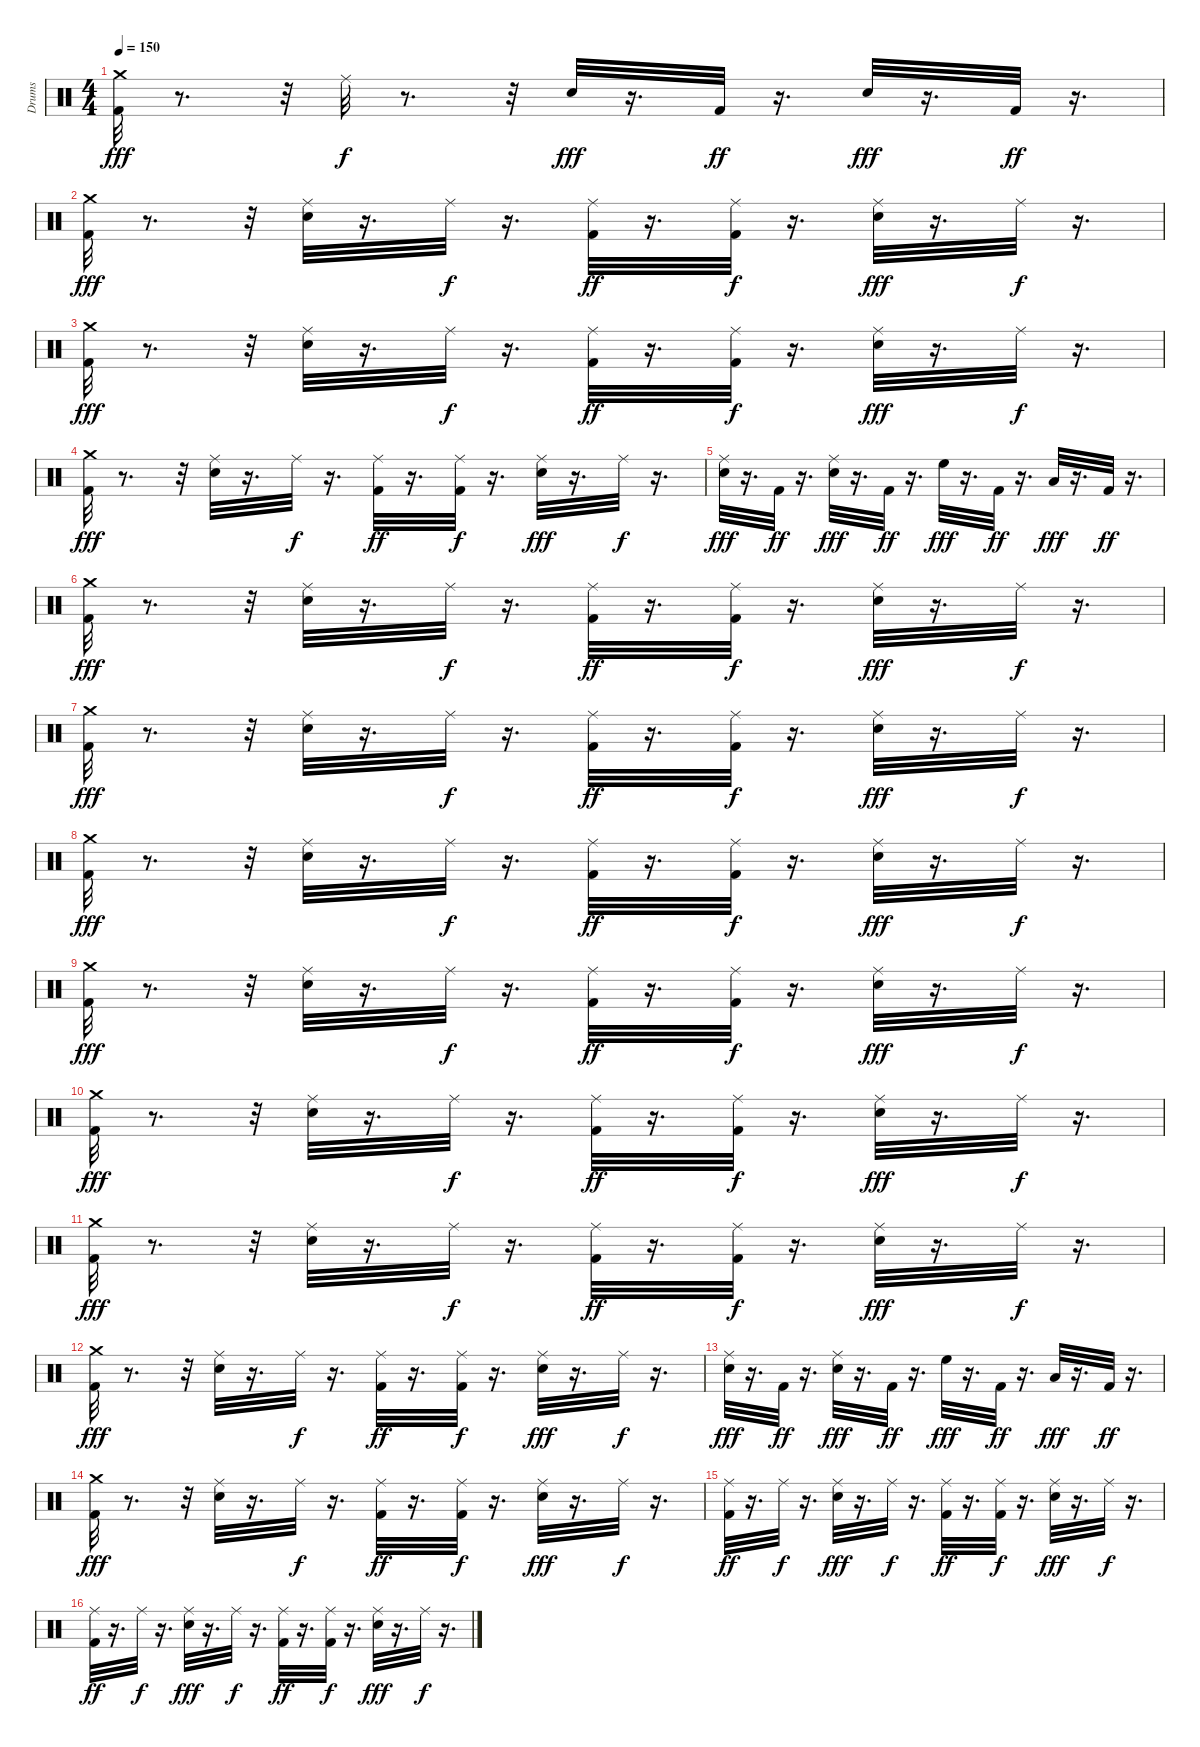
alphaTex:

\track ("Drums" "Drums") {instrument percussion}
\staff {score}
\articulation defaults
\ts (4 4)
\tempo 150
\clef neutral
\ks c
("Kick (hit) 2" "Crash medium (hit)").32{dy fff} r.8{d} r.32 "Ride (middle)".32{dy f} r.8{d} r.32 "Snare (hit) 2".32{dy fff} r.16{d} "Kick (hit) 2".32{dy ff} r.16{d} "Snare (hit) 2".32{dy fff} r.16{d} "Kick (hit) 2".32{dy ff} r.16{d} |
("Kick (hit) 2" "Crash medium (hit)").32{dy fff} r.8{d} r.32 ("Snare (hit) 2" "Ride (middle)").32 r.16{d} "Ride (middle)".32{dy f} r.16{d} ("Kick (hit) 2" "Ride (middle)").32{dy ff} r.16{d} ("Kick (hit) 2" "Ride (middle)").32{dy f} r.16{d} ("Snare (hit) 2" "Ride (middle)").32{dy fff} r.16{d} "Ride (middle)".32{dy f} r.16{d} |
("Kick (hit) 2" "Crash medium (hit)").32{dy fff} r.8{d} r.32 ("Snare (hit) 2" "Ride (middle)").32 r.16{d} "Ride (middle)".32{dy f} r.16{d} ("Kick (hit) 2" "Ride (middle)").32{dy ff} r.16{d} ("Kick (hit) 2" "Ride (middle)").32{dy f} r.16{d} ("Snare (hit) 2" "Ride (middle)").32{dy fff} r.16{d} "Ride (middle)".32{dy f} r.16{d} |
("Kick (hit) 2" "Crash medium (hit)").32{dy fff} r.8{d} r.32 ("Snare (hit) 2" "Ride (middle)").32 r.16{d} "Ride (middle)".32{dy f} r.16{d} ("Kick (hit) 2" "Ride (middle)").32{dy ff} r.16{d} ("Kick (hit) 2" "Ride (middle)").32{dy f} r.16{d} ("Snare (hit) 2" "Ride (middle)").32{dy fff} r.16{d} "Ride (middle)".32{dy f} r.16{d} |
("Snare (hit) 2" "Ride (middle)").32{dy fff} r.16{d} "Kick (hit) 2".32{dy ff} r.16{d} ("Snare (hit) 2" "Ride (middle)").32{dy fff} r.16{d} "Kick (hit) 2".32{dy ff} r.16{d} "High Floor Tom (hit)".32{dy fff} r.16{d} "Kick (hit) 2".32{dy ff} r.16{d} "Low Tom (hit)".32{dy fff} r.16{d} "Kick (hit) 2".32{dy ff} r.16{d} |
("Kick (hit) 2" "Crash medium (hit)").32{dy fff} r.8{d} r.32 ("Snare (hit) 2" "Ride (middle)").32 r.16{d} "Ride (middle)".32{dy f} r.16{d} ("Kick (hit) 2" "Ride (middle)").32{dy ff} r.16{d} ("Kick (hit) 2" "Ride (middle)").32{dy f} r.16{d} ("Snare (hit) 2" "Ride (middle)").32{dy fff} r.16{d} "Ride (middle)".32{dy f} r.16{d} |
("Kick (hit) 2" "Crash medium (hit)").32{dy fff} r.8{d} r.32 ("Snare (hit) 2" "Ride (middle)").32 r.16{d} "Ride (middle)".32{dy f} r.16{d} ("Kick (hit) 2" "Ride (middle)").32{dy ff} r.16{d} ("Kick (hit) 2" "Ride (middle)").32{dy f} r.16{d} ("Snare (hit) 2" "Ride (middle)").32{dy fff} r.16{d} "Ride (middle)".32{dy f} r.16{d} |
("Kick (hit) 2" "Crash medium (hit)").32{dy fff} r.8{d} r.32 ("Snare (hit) 2" "Ride (middle)").32 r.16{d} "Ride (middle)".32{dy f} r.16{d} ("Kick (hit) 2" "Ride (middle)").32{dy ff} r.16{d} ("Kick (hit) 2" "Ride (middle)").32{dy f} r.16{d} ("Snare (hit) 2" "Ride (middle)").32{dy fff} r.16{d} "Ride (middle)".32{dy f} r.16{d} |
("Kick (hit) 2" "Crash medium (hit)").32{dy fff} r.8{d} r.32 ("Snare (hit) 2" "Ride (middle)").32 r.16{d} "Ride (middle)".32{dy f} r.16{d} ("Kick (hit) 2" "Ride (middle)").32{dy ff} r.16{d} ("Kick (hit) 2" "Ride (middle)").32{dy f} r.16{d} ("Snare (hit) 2" "Ride (middle)").32{dy fff} r.16{d} "Ride (middle)".32{dy f} r.16{d} |
("Kick (hit) 2" "Crash medium (hit)").32{dy fff} r.8{d} r.32 ("Snare (hit) 2" "Ride (middle)").32 r.16{d} "Ride (middle)".32{dy f} r.16{d} ("Kick (hit) 2" "Ride (middle)").32{dy ff} r.16{d} ("Kick (hit) 2" "Ride (middle)").32{dy f} r.16{d} ("Snare (hit) 2" "Ride (middle)").32{dy fff} r.16{d} "Ride (middle)".32{dy f} r.16{d} |
("Kick (hit) 2" "Crash medium (hit)").32{dy fff} r.8{d} r.32 ("Snare (hit) 2" "Ride (middle)").32 r.16{d} "Ride (middle)".32{dy f} r.16{d} ("Kick (hit) 2" "Ride (middle)").32{dy ff} r.16{d} ("Kick (hit) 2" "Ride (middle)").32{dy f} r.16{d} ("Snare (hit) 2" "Ride (middle)").32{dy fff} r.16{d} "Ride (middle)".32{dy f} r.16{d} |
("Kick (hit) 2" "Crash medium (hit)").32{dy fff} r.8{d} r.32 ("Snare (hit) 2" "Ride (middle)").32 r.16{d} "Ride (middle)".32{dy f} r.16{d} ("Kick (hit) 2" "Ride (middle)").32{dy ff} r.16{d} ("Kick (hit) 2" "Ride (middle)").32{dy f} r.16{d} ("Snare (hit) 2" "Ride (middle)").32{dy fff} r.16{d} "Ride (middle)".32{dy f} r.16{d} |
("Snare (hit) 2" "Ride (middle)").32{dy fff} r.16{d} "Kick (hit) 2".32{dy ff} r.16{d} ("Snare (hit) 2" "Ride (middle)").32{dy fff} r.16{d} "Kick (hit) 2".32{dy ff} r.16{d} "High Floor Tom (hit)".32{dy fff} r.16{d} "Kick (hit) 2".32{dy ff} r.16{d} "Low Tom (hit)".32{dy fff} r.16{d} "Kick (hit) 2".32{dy ff} r.16{d} |
("Kick (hit) 2" "Crash medium (hit)").32{dy fff} r.8{d} r.32 ("Snare (hit) 2" "Ride (middle)").32 r.16{d} "Ride (middle)".32{dy f} r.16{d} ("Kick (hit) 2" "Ride (middle)").32{dy ff} r.16{d} ("Kick (hit) 2" "Ride (middle)").32{dy f} r.16{d} ("Snare (hit) 2" "Ride (middle)").32{dy fff} r.16{d} "Ride (middle)".32{dy f} r.16{d} |
("Kick (hit) 2" "Ride (middle)").32{dy ff} r.16{d} "Ride (middle)".32{dy f} r.16{d} ("Snare (hit) 2" "Ride (middle)").32{dy fff} r.16{d} "Ride (middle)".32{dy f} r.16{d} ("Kick (hit) 2" "Ride (middle)").32{dy ff} r.16{d} ("Kick (hit) 2" "Ride (middle)").32{dy f} r.16{d} ("Snare (hit) 2" "Ride (middle)").32{dy fff} r.16{d} "Ride (middle)".32{dy f} r.16{d} |
("Kick (hit) 2" "Ride (middle)").32{dy ff} r.16{d} "Ride (middle)".32{dy f} r.16{d} ("Snare (hit) 2" "Ride (middle)").32{dy fff} r.16{d} "Ride (middle)".32{dy f} r.16{d} ("Kick (hit) 2" "Ride (middle)").32{dy ff} r.16{d} ("Kick (hit) 2" "Ride (middle)").32{dy f} r.16{d} ("Snare (hit) 2" "Ride (middle)").32{dy fff} r.16{d} "Ride (middle)".32{dy f} r.16{d}
